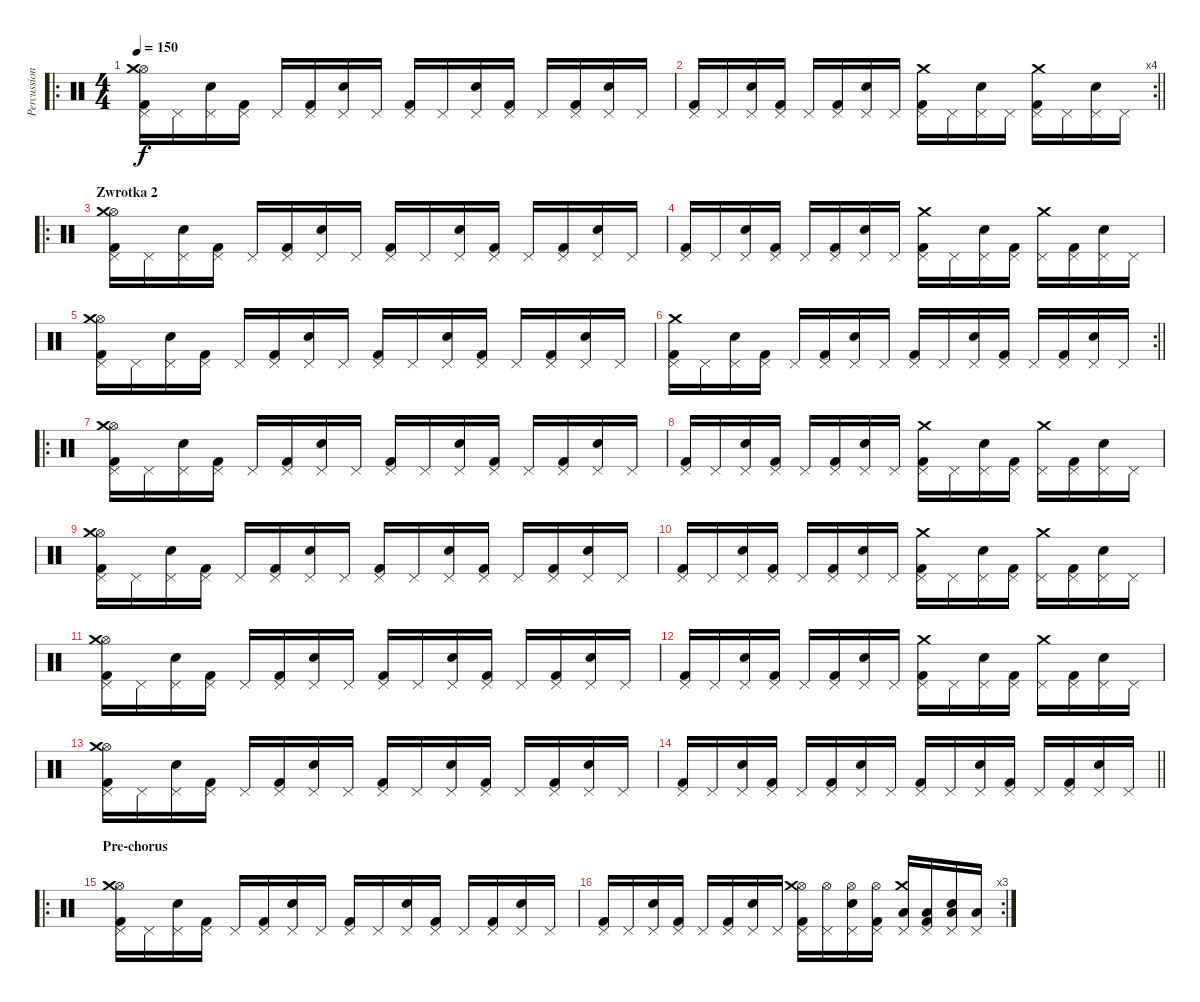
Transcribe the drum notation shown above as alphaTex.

\track ("Percussion" "Percussion") {instrument percussion}
\staff {score}
\articulation defaults
\ro
\ts (4 4)
\tempo 150
\clef neutral
\ks c
("Pedal Hi-Hat (hit)" "Kick (hit) 2" "Hi-Hat (open)" "Crash medium (hit)").16{dy f} "Pedal Hi-Hat (hit)".16 ("Pedal Hi-Hat (hit)" "Snare (hit) 2").16 ("Pedal Hi-Hat (hit)" "Kick (hit) 2").16 "Pedal Hi-Hat (hit)".16 ("Pedal Hi-Hat (hit)" "Kick (hit) 2").16 ("Pedal Hi-Hat (hit)" "Snare (hit) 2").16 "Pedal Hi-Hat (hit)".16 ("Pedal Hi-Hat (hit)" "Kick (hit) 2").16 "Pedal Hi-Hat (hit)".16 ("Pedal Hi-Hat (hit)" "Snare (hit) 2").16 ("Pedal Hi-Hat (hit)" "Kick (hit) 2").16 "Pedal Hi-Hat (hit)".16 ("Pedal Hi-Hat (hit)" "Kick (hit) 2").16 ("Pedal Hi-Hat (hit)" "Snare (hit) 2").16 "Pedal Hi-Hat (hit)".16 |
\rc 4
\barLineRight lightlight
("Pedal Hi-Hat (hit)" "Kick (hit) 2").16 "Pedal Hi-Hat (hit)".16 ("Pedal Hi-Hat (hit)" "Snare (hit) 2").16 ("Pedal Hi-Hat (hit)" "Kick (hit) 2").16 "Pedal Hi-Hat (hit)".16 ("Pedal Hi-Hat (hit)" "Kick (hit) 2").16 ("Pedal Hi-Hat (hit)" "Snare (hit) 2").16 "Pedal Hi-Hat (hit)".16 ("Pedal Hi-Hat (hit)" "Kick (hit) 2" "Crash medium (hit)").16 "Pedal Hi-Hat (hit)".16 ("Pedal Hi-Hat (hit)" "Snare (hit) 2").16 "Pedal Hi-Hat (hit)".16 ("Pedal Hi-Hat (hit)" "Kick (hit) 2" "Crash medium (hit)").16 "Pedal Hi-Hat (hit)".16 ("Pedal Hi-Hat (hit)" "Snare (hit) 2").16 "Pedal Hi-Hat (hit)".16 |
\ro
\section ("" "Zwrotka 2")
("Pedal Hi-Hat (hit)" "Kick (hit) 2" "Hi-Hat (open)" "Crash medium (hit)").16 "Pedal Hi-Hat (hit)".16 ("Pedal Hi-Hat (hit)" "Snare (hit) 2").16 ("Pedal Hi-Hat (hit)" "Kick (hit) 2").16 "Pedal Hi-Hat (hit)".16 ("Pedal Hi-Hat (hit)" "Kick (hit) 2").16 ("Pedal Hi-Hat (hit)" "Snare (hit) 2").16 "Pedal Hi-Hat (hit)".16 ("Pedal Hi-Hat (hit)" "Kick (hit) 2").16 "Pedal Hi-Hat (hit)".16 ("Pedal Hi-Hat (hit)" "Snare (hit) 2").16 ("Pedal Hi-Hat (hit)" "Kick (hit) 2").16 "Pedal Hi-Hat (hit)".16 ("Pedal Hi-Hat (hit)" "Kick (hit) 2").16 ("Pedal Hi-Hat (hit)" "Snare (hit) 2").16 "Pedal Hi-Hat (hit)".16 |
("Pedal Hi-Hat (hit)" "Kick (hit) 2").16 "Pedal Hi-Hat (hit)".16 ("Pedal Hi-Hat (hit)" "Snare (hit) 2").16 ("Pedal Hi-Hat (hit)" "Kick (hit) 2").16 "Pedal Hi-Hat (hit)".16 ("Pedal Hi-Hat (hit)" "Kick (hit) 2").16 ("Pedal Hi-Hat (hit)" "Snare (hit) 2").16 "Pedal Hi-Hat (hit)".16 ("Pedal Hi-Hat (hit)" "Kick (hit) 2" "Crash medium (hit)").16 "Pedal Hi-Hat (hit)".16 ("Pedal Hi-Hat (hit)" "Snare (hit) 2").16 ("Pedal Hi-Hat (hit)" "Kick (hit) 2").16 ("Pedal Hi-Hat (hit)" "Crash medium (hit)").16 ("Pedal Hi-Hat (hit)" "Kick (hit) 2").16 ("Pedal Hi-Hat (hit)" "Snare (hit) 2").16 "Pedal Hi-Hat (hit)".16 |
("Pedal Hi-Hat (hit)" "Kick (hit) 2" "Hi-Hat (open)" "Crash medium (hit)").16 "Pedal Hi-Hat (hit)".16 ("Pedal Hi-Hat (hit)" "Snare (hit) 2").16 ("Pedal Hi-Hat (hit)" "Kick (hit) 2").16 "Pedal Hi-Hat (hit)".16 ("Pedal Hi-Hat (hit)" "Kick (hit) 2").16 ("Pedal Hi-Hat (hit)" "Snare (hit) 2").16 "Pedal Hi-Hat (hit)".16 ("Pedal Hi-Hat (hit)" "Kick (hit) 2").16 "Pedal Hi-Hat (hit)".16 ("Pedal Hi-Hat (hit)" "Snare (hit) 2").16 ("Pedal Hi-Hat (hit)" "Kick (hit) 2").16 "Pedal Hi-Hat (hit)".16 ("Pedal Hi-Hat (hit)" "Kick (hit) 2").16 ("Pedal Hi-Hat (hit)" "Snare (hit) 2").16 "Pedal Hi-Hat (hit)".16 |
\rc 2
\barLineRight lightlight
("Pedal Hi-Hat (hit)" "Kick (hit) 2" "Crash medium (hit)").16 "Pedal Hi-Hat (hit)".16 ("Pedal Hi-Hat (hit)" "Snare (hit) 2").16 ("Pedal Hi-Hat (hit)" "Kick (hit) 2").16 "Pedal Hi-Hat (hit)".16 ("Pedal Hi-Hat (hit)" "Kick (hit) 2").16 ("Pedal Hi-Hat (hit)" "Snare (hit) 2").16 "Pedal Hi-Hat (hit)".16 ("Pedal Hi-Hat (hit)" "Kick (hit) 2").16 "Pedal Hi-Hat (hit)".16 ("Pedal Hi-Hat (hit)" "Snare (hit) 2").16 ("Pedal Hi-Hat (hit)" "Kick (hit) 2").16 "Pedal Hi-Hat (hit)".16 ("Pedal Hi-Hat (hit)" "Kick (hit) 2").16 ("Pedal Hi-Hat (hit)" "Snare (hit) 2").16 "Pedal Hi-Hat (hit)".16 |
\ro
("Pedal Hi-Hat (hit)" "Kick (hit) 2" "Hi-Hat (open)" "Crash medium (hit)").16 "Pedal Hi-Hat (hit)".16 ("Pedal Hi-Hat (hit)" "Snare (hit) 2").16 ("Pedal Hi-Hat (hit)" "Kick (hit) 2").16 "Pedal Hi-Hat (hit)".16 ("Pedal Hi-Hat (hit)" "Kick (hit) 2").16 ("Pedal Hi-Hat (hit)" "Snare (hit) 2").16 "Pedal Hi-Hat (hit)".16 ("Pedal Hi-Hat (hit)" "Kick (hit) 2").16 "Pedal Hi-Hat (hit)".16 ("Pedal Hi-Hat (hit)" "Snare (hit) 2").16 ("Pedal Hi-Hat (hit)" "Kick (hit) 2").16 "Pedal Hi-Hat (hit)".16 ("Pedal Hi-Hat (hit)" "Kick (hit) 2").16 ("Pedal Hi-Hat (hit)" "Snare (hit) 2").16 "Pedal Hi-Hat (hit)".16 |
("Pedal Hi-Hat (hit)" "Kick (hit) 2").16 "Pedal Hi-Hat (hit)".16 ("Pedal Hi-Hat (hit)" "Snare (hit) 2").16 ("Pedal Hi-Hat (hit)" "Kick (hit) 2").16 "Pedal Hi-Hat (hit)".16 ("Pedal Hi-Hat (hit)" "Kick (hit) 2").16 ("Pedal Hi-Hat (hit)" "Snare (hit) 2").16 "Pedal Hi-Hat (hit)".16 ("Pedal Hi-Hat (hit)" "Kick (hit) 2" "Crash medium (hit)").16 "Pedal Hi-Hat (hit)".16 ("Pedal Hi-Hat (hit)" "Snare (hit) 2").16 ("Pedal Hi-Hat (hit)" "Kick (hit) 2").16 ("Pedal Hi-Hat (hit)" "Crash medium (hit)").16 ("Pedal Hi-Hat (hit)" "Kick (hit) 2").16 ("Pedal Hi-Hat (hit)" "Snare (hit) 2").16 "Pedal Hi-Hat (hit)".16 |
("Pedal Hi-Hat (hit)" "Kick (hit) 2" "Hi-Hat (open)" "Crash medium (hit)").16 "Pedal Hi-Hat (hit)".16 ("Pedal Hi-Hat (hit)" "Snare (hit) 2").16 ("Pedal Hi-Hat (hit)" "Kick (hit) 2").16 "Pedal Hi-Hat (hit)".16 ("Pedal Hi-Hat (hit)" "Kick (hit) 2").16 ("Pedal Hi-Hat (hit)" "Snare (hit) 2").16 "Pedal Hi-Hat (hit)".16 ("Pedal Hi-Hat (hit)" "Kick (hit) 2").16 "Pedal Hi-Hat (hit)".16 ("Pedal Hi-Hat (hit)" "Snare (hit) 2").16 ("Pedal Hi-Hat (hit)" "Kick (hit) 2").16 "Pedal Hi-Hat (hit)".16 ("Pedal Hi-Hat (hit)" "Kick (hit) 2").16 ("Pedal Hi-Hat (hit)" "Snare (hit) 2").16 "Pedal Hi-Hat (hit)".16 |
("Pedal Hi-Hat (hit)" "Kick (hit) 2").16 "Pedal Hi-Hat (hit)".16 ("Pedal Hi-Hat (hit)" "Snare (hit) 2").16 ("Pedal Hi-Hat (hit)" "Kick (hit) 2").16 "Pedal Hi-Hat (hit)".16 ("Pedal Hi-Hat (hit)" "Kick (hit) 2").16 ("Pedal Hi-Hat (hit)" "Snare (hit) 2").16 "Pedal Hi-Hat (hit)".16 ("Pedal Hi-Hat (hit)" "Kick (hit) 2" "Crash medium (hit)").16 "Pedal Hi-Hat (hit)".16 ("Pedal Hi-Hat (hit)" "Snare (hit) 2").16 ("Pedal Hi-Hat (hit)" "Kick (hit) 2").16 ("Pedal Hi-Hat (hit)" "Crash medium (hit)").16 ("Pedal Hi-Hat (hit)" "Kick (hit) 2").16 ("Pedal Hi-Hat (hit)" "Snare (hit) 2").16 "Pedal Hi-Hat (hit)".16 |
("Pedal Hi-Hat (hit)" "Kick (hit) 2" "Hi-Hat (open)" "Crash medium (hit)").16 "Pedal Hi-Hat (hit)".16 ("Pedal Hi-Hat (hit)" "Snare (hit) 2").16 ("Pedal Hi-Hat (hit)" "Kick (hit) 2").16 "Pedal Hi-Hat (hit)".16 ("Pedal Hi-Hat (hit)" "Kick (hit) 2").16 ("Pedal Hi-Hat (hit)" "Snare (hit) 2").16 "Pedal Hi-Hat (hit)".16 ("Pedal Hi-Hat (hit)" "Kick (hit) 2").16 "Pedal Hi-Hat (hit)".16 ("Pedal Hi-Hat (hit)" "Snare (hit) 2").16 ("Pedal Hi-Hat (hit)" "Kick (hit) 2").16 "Pedal Hi-Hat (hit)".16 ("Pedal Hi-Hat (hit)" "Kick (hit) 2").16 ("Pedal Hi-Hat (hit)" "Snare (hit) 2").16 "Pedal Hi-Hat (hit)".16 |
("Pedal Hi-Hat (hit)" "Kick (hit) 2").16 "Pedal Hi-Hat (hit)".16 ("Pedal Hi-Hat (hit)" "Snare (hit) 2").16 ("Pedal Hi-Hat (hit)" "Kick (hit) 2").16 "Pedal Hi-Hat (hit)".16 ("Pedal Hi-Hat (hit)" "Kick (hit) 2").16 ("Pedal Hi-Hat (hit)" "Snare (hit) 2").16 "Pedal Hi-Hat (hit)".16 ("Pedal Hi-Hat (hit)" "Kick (hit) 2" "Crash medium (hit)").16 "Pedal Hi-Hat (hit)".16 ("Pedal Hi-Hat (hit)" "Snare (hit) 2").16 ("Pedal Hi-Hat (hit)" "Kick (hit) 2").16 ("Pedal Hi-Hat (hit)" "Crash medium (hit)").16 ("Pedal Hi-Hat (hit)" "Kick (hit) 2").16 ("Pedal Hi-Hat (hit)" "Snare (hit) 2").16 "Pedal Hi-Hat (hit)".16 |
("Pedal Hi-Hat (hit)" "Kick (hit) 2" "Hi-Hat (open)" "Crash medium (hit)").16 "Pedal Hi-Hat (hit)".16 ("Pedal Hi-Hat (hit)" "Snare (hit) 2").16 ("Pedal Hi-Hat (hit)" "Kick (hit) 2").16 "Pedal Hi-Hat (hit)".16 ("Pedal Hi-Hat (hit)" "Kick (hit) 2").16 ("Pedal Hi-Hat (hit)" "Snare (hit) 2").16 "Pedal Hi-Hat (hit)".16 ("Pedal Hi-Hat (hit)" "Kick (hit) 2").16 "Pedal Hi-Hat (hit)".16 ("Pedal Hi-Hat (hit)" "Snare (hit) 2").16 ("Pedal Hi-Hat (hit)" "Kick (hit) 2").16 "Pedal Hi-Hat (hit)".16 ("Pedal Hi-Hat (hit)" "Kick (hit) 2").16 ("Pedal Hi-Hat (hit)" "Snare (hit) 2").16 "Pedal Hi-Hat (hit)".16 |
\barLineRight lightlight
("Pedal Hi-Hat (hit)" "Kick (hit) 2").16 "Pedal Hi-Hat (hit)".16 ("Pedal Hi-Hat (hit)" "Snare (hit) 2").16 ("Pedal Hi-Hat (hit)" "Kick (hit) 2").16 "Pedal Hi-Hat (hit)".16 ("Pedal Hi-Hat (hit)" "Kick (hit) 2").16 ("Pedal Hi-Hat (hit)" "Snare (hit) 2").16 "Pedal Hi-Hat (hit)".16 ("Pedal Hi-Hat (hit)" "Kick (hit) 2").16 "Pedal Hi-Hat (hit)".16 ("Pedal Hi-Hat (hit)" "Snare (hit) 2").16 ("Pedal Hi-Hat (hit)" "Kick (hit) 2").16 "Pedal Hi-Hat (hit)".16 ("Pedal Hi-Hat (hit)" "Kick (hit) 2").16 ("Pedal Hi-Hat (hit)" "Snare (hit) 2").16 "Pedal Hi-Hat (hit)".16 |
\ro
\section ("" "Pre-chorus")
("Pedal Hi-Hat (hit)" "Kick (hit) 2" "Hi-Hat (open)" "Crash medium (hit)").16 "Pedal Hi-Hat (hit)".16 ("Pedal Hi-Hat (hit)" "Snare (hit) 2").16 ("Pedal Hi-Hat (hit)" "Kick (hit) 2").16 "Pedal Hi-Hat (hit)".16 ("Pedal Hi-Hat (hit)" "Kick (hit) 2").16 ("Pedal Hi-Hat (hit)" "Snare (hit) 2").16 "Pedal Hi-Hat (hit)".16 ("Pedal Hi-Hat (hit)" "Kick (hit) 2").16 "Pedal Hi-Hat (hit)".16 ("Pedal Hi-Hat (hit)" "Snare (hit) 2").16 ("Pedal Hi-Hat (hit)" "Kick (hit) 2").16 "Pedal Hi-Hat (hit)".16 ("Pedal Hi-Hat (hit)" "Kick (hit) 2").16 ("Pedal Hi-Hat (hit)" "Snare (hit) 2").16 "Pedal Hi-Hat (hit)".16 |
\rc 3
("Pedal Hi-Hat (hit)" "Kick (hit) 2").16 "Pedal Hi-Hat (hit)".16 ("Pedal Hi-Hat (hit)" "Snare (hit) 2").16 ("Pedal Hi-Hat (hit)" "Kick (hit) 2").16 "Pedal Hi-Hat (hit)".16 ("Pedal Hi-Hat (hit)" "Kick (hit) 2").16 ("Pedal Hi-Hat (hit)" "Snare (hit) 2").16 "Pedal Hi-Hat (hit)".16 ("Pedal Hi-Hat (hit)" "Kick (hit) 2" "Hi-Hat (open)" "Crash medium (hit)").16 ("Pedal Hi-Hat (hit)" "Hi-Hat (open)").16 ("Pedal Hi-Hat (hit)" "Snare (hit) 2" "Hi-Hat (open)").16 ("Pedal Hi-Hat (hit)" "Kick (hit) 2" "Hi-Hat (open)").16 ("Pedal Hi-Hat (hit)" "Low Tom (hit)" "Crash medium (hit)").16 ("Pedal Hi-Hat (hit)" "Kick (hit) 2" "Low Tom (hit)").16 ("Pedal Hi-Hat (hit)" "Snare (hit) 2" "Low Tom (hit)").16 ("Pedal Hi-Hat (hit)" "Low Tom (hit)").16
